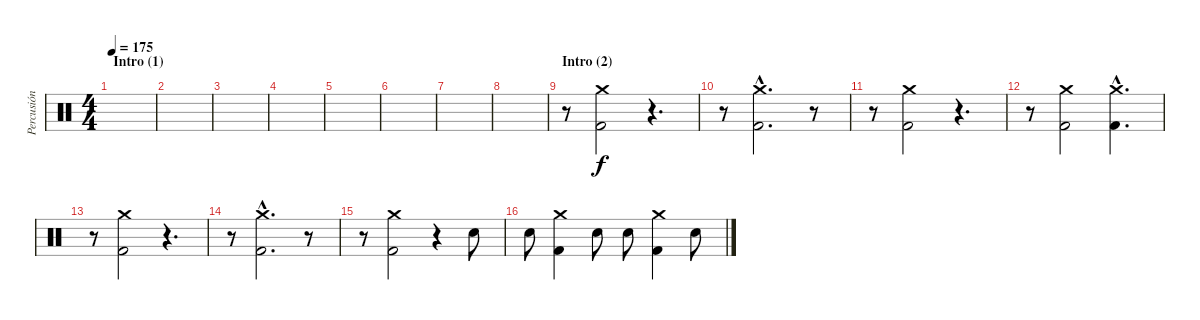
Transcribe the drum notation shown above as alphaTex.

\track ("Percusión" "Percusión") {instrument percussion}
\staff {score}
\articulation defaults
\ts (4 4)
\section ("" "Intro (1)")
\tempo 175
\clef neutral
\ks c
|
|
|
|
|
|
|
|
\section ("" "Intro (2)")
r.8 ("Crash medium (hit)" "Kick (hit) 2").2 r.4{d} |
r.8 ("Crash medium (hit)"{hac} "Kick (hit) 2"{hac}).2{d} r.8 |
r.8 ("Crash medium (hit)" "Kick (hit) 2").2 r.4{d} |
r.8 ("Crash medium (hit)" "Kick (hit) 2").2 ("Crash medium (hit)"{hac} "Kick (hit) 2"{hac}).4{d} |
r.8 ("Crash medium (hit)" "Kick (hit) 2").2 r.4{d} |
r.8 ("Crash medium (hit)"{hac} "Kick (hit) 2"{hac}).2{d} r.8 |
r.8 ("Crash medium (hit)" "Kick (hit) 2").2 r.4 "Snare (hit) 2".8 |
"Snare (hit) 2".8 ("Kick (hit) 2" "Crash medium (hit)").4 "Snare (hit) 2".8 "Snare (hit) 2".8 ("Kick (hit) 2" "Crash medium (hit)").4 "Snare (hit) 2".8
